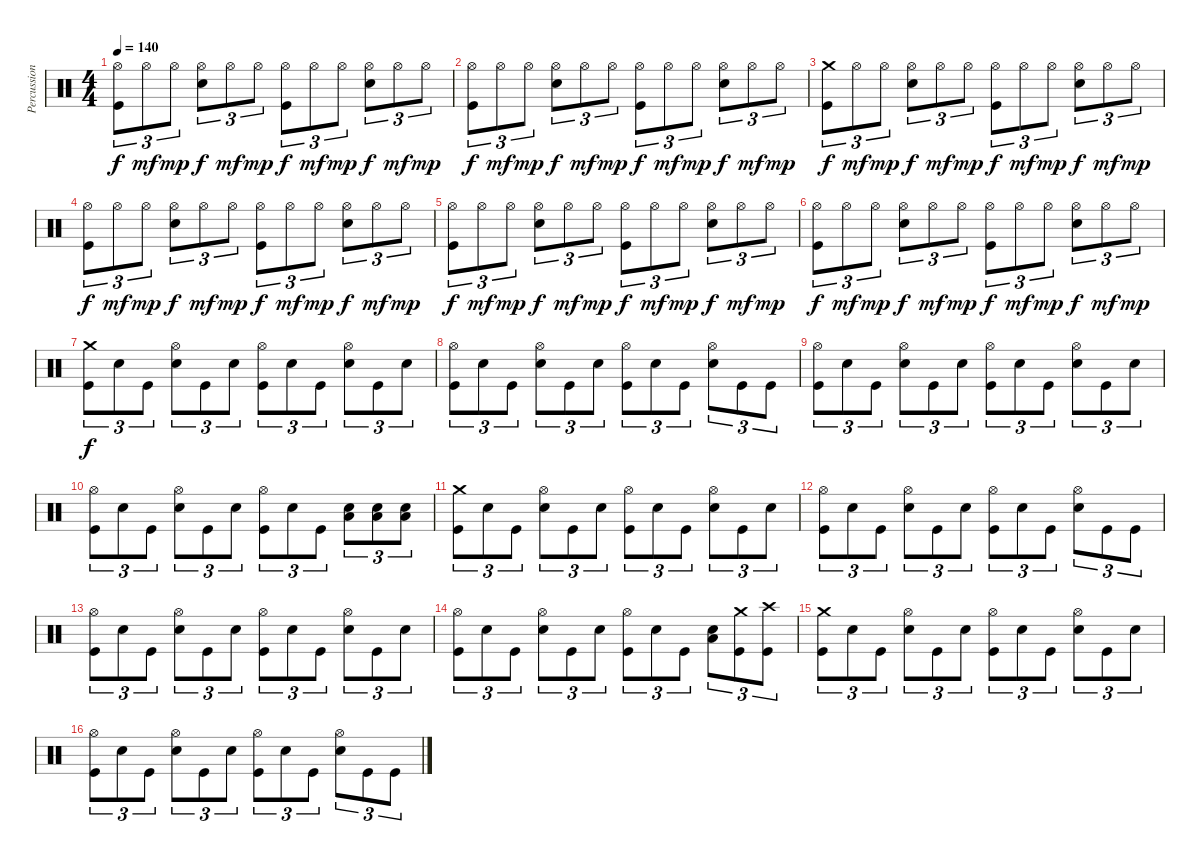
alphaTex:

\track ("Percussions" "Percussion") {instrument percussion}
\staff {score}
\articulation defaults
\ts (4 4)
\tempo 140
\clef neutral
\ks c
("Hi-Hat (open)" "Kick (hit)").8{tu (3 2) dy f} "Hi-Hat (open)".8{tu (3 2) dy mf} "Hi-Hat (open)".8{tu (3 2) dy mp} ("Hi-Hat (open)" "Electric Snare (hit)").8{tu (3 2) dy f} "Hi-Hat (open)".8{tu (3 2) dy mf} "Hi-Hat (open)".8{tu (3 2) dy mp} ("Hi-Hat (open)" "Kick (hit)").8{tu (3 2) dy f} "Hi-Hat (open)".8{tu (3 2) dy mf} "Hi-Hat (open)".8{tu (3 2) dy mp} ("Hi-Hat (open)" "Electric Snare (hit)").8{tu (3 2) dy f} "Hi-Hat (open)".8{tu (3 2) dy mf} "Hi-Hat (open)".8{tu (3 2) dy mp} |
("Hi-Hat (open)" "Kick (hit)").8{tu (3 2) dy f} "Hi-Hat (open)".8{tu (3 2) dy mf} "Hi-Hat (open)".8{tu (3 2) dy mp} ("Hi-Hat (open)" "Electric Snare (hit)").8{tu (3 2) dy f} "Hi-Hat (open)".8{tu (3 2) dy mf} "Hi-Hat (open)".8{tu (3 2) dy mp} ("Hi-Hat (open)" "Kick (hit)").8{tu (3 2) dy f} "Hi-Hat (open)".8{tu (3 2) dy mf} "Hi-Hat (open)".8{tu (3 2) dy mp} ("Hi-Hat (open)" "Electric Snare (hit)").8{tu (3 2) dy f} "Hi-Hat (open)".8{tu (3 2) dy mf} "Hi-Hat (open)".8{tu (3 2) dy mp} |
("Crash medium (hit)" "Kick (hit)").8{tu (3 2) dy f} "Hi-Hat (open)".8{tu (3 2) dy mf} "Hi-Hat (open)".8{tu (3 2) dy mp} ("Hi-Hat (open)" "Electric Snare (hit)").8{tu (3 2) dy f} "Hi-Hat (open)".8{tu (3 2) dy mf} "Hi-Hat (open)".8{tu (3 2) dy mp} ("Hi-Hat (open)" "Kick (hit)").8{tu (3 2) dy f} "Hi-Hat (open)".8{tu (3 2) dy mf} "Hi-Hat (open)".8{tu (3 2) dy mp} ("Hi-Hat (open)" "Electric Snare (hit)").8{tu (3 2) dy f} "Hi-Hat (open)".8{tu (3 2) dy mf} "Hi-Hat (open)".8{tu (3 2) dy mp} |
("Hi-Hat (open)" "Kick (hit)").8{tu (3 2) dy f} "Hi-Hat (open)".8{tu (3 2) dy mf} "Hi-Hat (open)".8{tu (3 2) dy mp} ("Hi-Hat (open)" "Electric Snare (hit)").8{tu (3 2) dy f} "Hi-Hat (open)".8{tu (3 2) dy mf} "Hi-Hat (open)".8{tu (3 2) dy mp} ("Hi-Hat (open)" "Kick (hit)").8{tu (3 2) dy f} "Hi-Hat (open)".8{tu (3 2) dy mf} "Hi-Hat (open)".8{tu (3 2) dy mp} ("Hi-Hat (open)" "Electric Snare (hit)").8{tu (3 2) dy f} "Hi-Hat (open)".8{tu (3 2) dy mf} "Hi-Hat (open)".8{tu (3 2) dy mp} |
("Hi-Hat (open)" "Kick (hit)").8{tu (3 2) dy f} "Hi-Hat (open)".8{tu (3 2) dy mf} "Hi-Hat (open)".8{tu (3 2) dy mp} ("Hi-Hat (open)" "Electric Snare (hit)").8{tu (3 2) dy f} "Hi-Hat (open)".8{tu (3 2) dy mf} "Hi-Hat (open)".8{tu (3 2) dy mp} ("Hi-Hat (open)" "Kick (hit)").8{tu (3 2) dy f} "Hi-Hat (open)".8{tu (3 2) dy mf} "Hi-Hat (open)".8{tu (3 2) dy mp} ("Hi-Hat (open)" "Electric Snare (hit)").8{tu (3 2) dy f} "Hi-Hat (open)".8{tu (3 2) dy mf} "Hi-Hat (open)".8{tu (3 2) dy mp} |
("Hi-Hat (open)" "Kick (hit)").8{tu (3 2) dy f} "Hi-Hat (open)".8{tu (3 2) dy mf} "Hi-Hat (open)".8{tu (3 2) dy mp} ("Hi-Hat (open)" "Electric Snare (hit)").8{tu (3 2) dy f} "Hi-Hat (open)".8{tu (3 2) dy mf} "Hi-Hat (open)".8{tu (3 2) dy mp} ("Hi-Hat (open)" "Kick (hit)").8{tu (3 2) dy f} "Hi-Hat (open)".8{tu (3 2) dy mf} "Hi-Hat (open)".8{tu (3 2) dy mp} ("Hi-Hat (open)" "Electric Snare (hit)").8{tu (3 2) dy f} "Hi-Hat (open)".8{tu (3 2) dy mf} "Hi-Hat (open)".8{tu (3 2) dy mp} |
("Crash medium (hit)" "Kick (hit)").8{tu (3 2) dy f} "Snare (hit)".8{tu (3 2)} "Kick (hit)".8{tu (3 2)} ("Hi-Hat (open)" "Electric Snare (hit)").8{tu (3 2)} "Kick (hit)".8{tu (3 2)} "Snare (hit)".8{tu (3 2)} ("Hi-Hat (open)" "Kick (hit)").8{tu (3 2)} "Snare (hit)".8{tu (3 2)} "Kick (hit)".8{tu (3 2)} ("Hi-Hat (open)" "Electric Snare (hit)").8{tu (3 2)} "Kick (hit)".8{tu (3 2)} "Snare (hit)".8{tu (3 2)} |
("Hi-Hat (open)" "Kick (hit)").8{tu (3 2)} "Snare (hit)".8{tu (3 2)} "Kick (hit)".8{tu (3 2)} ("Hi-Hat (open)" "Electric Snare (hit)").8{tu (3 2)} "Kick (hit)".8{tu (3 2)} "Snare (hit)".8{tu (3 2)} ("Hi-Hat (open)" "Kick (hit)").8{tu (3 2)} "Snare (hit)".8{tu (3 2)} "Kick (hit)".8{tu (3 2)} ("Hi-Hat (open)" "Electric Snare (hit)").8{tu (3 2)} "Kick (hit)".8{tu (3 2)} "Kick (hit)".8{tu (3 2)} |
("Hi-Hat (open)" "Kick (hit)").8{tu (3 2)} "Snare (hit)".8{tu (3 2)} "Kick (hit)".8{tu (3 2)} ("Hi-Hat (open)" "Electric Snare (hit)").8{tu (3 2)} "Kick (hit)".8{tu (3 2)} "Snare (hit)".8{tu (3 2)} ("Hi-Hat (open)" "Kick (hit)").8{tu (3 2)} "Snare (hit)".8{tu (3 2)} "Kick (hit)".8{tu (3 2)} ("Hi-Hat (open)" "Electric Snare (hit)").8{tu (3 2)} "Kick (hit)".8{tu (3 2)} "Snare (hit)".8{tu (3 2)} |
("Hi-Hat (open)" "Kick (hit)").8{tu (3 2)} "Snare (hit)".8{tu (3 2)} "Kick (hit)".8{tu (3 2)} ("Hi-Hat (open)" "Electric Snare (hit)").8{tu (3 2)} "Kick (hit)".8{tu (3 2)} "Snare (hit)".8{tu (3 2)} ("Hi-Hat (open)" "Kick (hit)").8{tu (3 2)} "Snare (hit)".8{tu (3 2)} "Kick (hit)".8{tu (3 2)} ("Low Floor Tom (hit)" "Electric Snare (hit)").8{tu (3 2)} ("Low Floor Tom (hit)" "Electric Snare (hit)").8{tu (3 2)} ("Low Floor Tom (hit)" "Electric Snare (hit)").8{tu (3 2)} |
("Crash medium (hit)" "Kick (hit)").8{tu (3 2)} "Snare (hit)".8{tu (3 2)} "Kick (hit)".8{tu (3 2)} ("Hi-Hat (open)" "Electric Snare (hit)").8{tu (3 2)} "Kick (hit)".8{tu (3 2)} "Snare (hit)".8{tu (3 2)} ("Hi-Hat (open)" "Kick (hit)").8{tu (3 2)} "Snare (hit)".8{tu (3 2)} "Kick (hit)".8{tu (3 2)} ("Hi-Hat (open)" "Electric Snare (hit)").8{tu (3 2)} "Kick (hit)".8{tu (3 2)} "Snare (hit)".8{tu (3 2)} |
("Hi-Hat (open)" "Kick (hit)").8{tu (3 2)} "Snare (hit)".8{tu (3 2)} "Kick (hit)".8{tu (3 2)} ("Hi-Hat (open)" "Electric Snare (hit)").8{tu (3 2)} "Kick (hit)".8{tu (3 2)} "Snare (hit)".8{tu (3 2)} ("Hi-Hat (open)" "Kick (hit)").8{tu (3 2)} "Snare (hit)".8{tu (3 2)} "Kick (hit)".8{tu (3 2)} ("Hi-Hat (open)" "Electric Snare (hit)").8{tu (3 2)} "Kick (hit)".8{tu (3 2)} "Kick (hit)".8{tu (3 2)} |
("Hi-Hat (open)" "Kick (hit)").8{tu (3 2)} "Snare (hit)".8{tu (3 2)} "Kick (hit)".8{tu (3 2)} ("Hi-Hat (open)" "Electric Snare (hit)").8{tu (3 2)} "Kick (hit)".8{tu (3 2)} "Snare (hit)".8{tu (3 2)} ("Hi-Hat (open)" "Kick (hit)").8{tu (3 2)} "Snare (hit)".8{tu (3 2)} "Kick (hit)".8{tu (3 2)} ("Hi-Hat (open)" "Electric Snare (hit)").8{tu (3 2)} "Kick (hit)".8{tu (3 2)} "Snare (hit)".8{tu (3 2)} |
("Hi-Hat (open)" "Kick (hit)").8{tu (3 2)} "Snare (hit)".8{tu (3 2)} "Kick (hit)".8{tu (3 2)} ("Hi-Hat (open)" "Electric Snare (hit)").8{tu (3 2)} "Kick (hit)".8{tu (3 2)} "Snare (hit)".8{tu (3 2)} ("Hi-Hat (open)" "Kick (hit)").8{tu (3 2)} "Snare (hit)".8{tu (3 2)} "Kick (hit)".8{tu (3 2)} ("Low Floor Tom (hit)" "Electric Snare (hit)").8{tu (3 2)} ("Crash medium (hit)" "Kick (hit)").8{tu (3 2)} ("Crash high (hit)" "Kick (hit)").8{tu (3 2)} |
("Crash medium (hit)" "Kick (hit)").8{tu (3 2)} "Snare (hit)".8{tu (3 2)} "Kick (hit)".8{tu (3 2)} ("Hi-Hat (open)" "Electric Snare (hit)").8{tu (3 2)} "Kick (hit)".8{tu (3 2)} "Snare (hit)".8{tu (3 2)} ("Hi-Hat (open)" "Kick (hit)").8{tu (3 2)} "Snare (hit)".8{tu (3 2)} "Kick (hit)".8{tu (3 2)} ("Hi-Hat (open)" "Electric Snare (hit)").8{tu (3 2)} "Kick (hit)".8{tu (3 2)} "Snare (hit)".8{tu (3 2)} |
("Hi-Hat (open)" "Kick (hit)").8{tu (3 2)} "Snare (hit)".8{tu (3 2)} "Kick (hit)".8{tu (3 2)} ("Hi-Hat (open)" "Electric Snare (hit)").8{tu (3 2)} "Kick (hit)".8{tu (3 2)} "Snare (hit)".8{tu (3 2)} ("Hi-Hat (open)" "Kick (hit)").8{tu (3 2)} "Snare (hit)".8{tu (3 2)} "Kick (hit)".8{tu (3 2)} ("Hi-Hat (open)" "Electric Snare (hit)").8{tu (3 2)} "Kick (hit)".8{tu (3 2)} "Kick (hit)".8{tu (3 2)}
